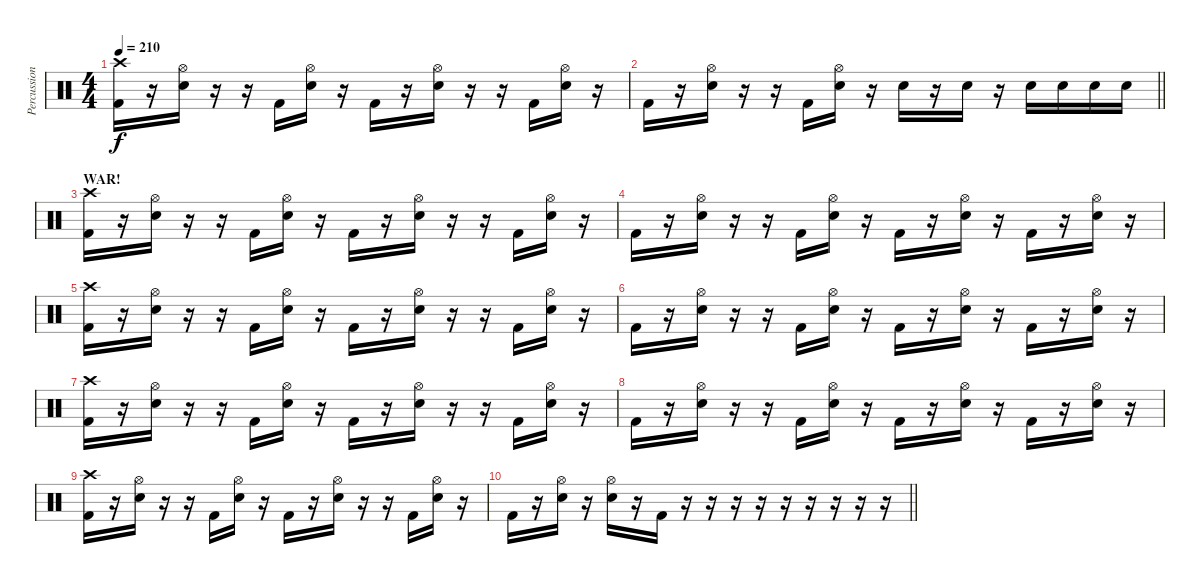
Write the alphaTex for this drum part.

\track ("Percussions" "Percussion") {instrument percussion}
\staff {score}
\articulation defaults
\ts (4 4)
\tempo 210
\clef neutral
\ks c
("Crash high (hit)" "Kick (hit) 2").16{dy f} r.16 ("Hi-Hat (open)" "Snare (hit) 2").16 r.16 r.16 "Kick (hit) 2".16 ("Hi-Hat (open)" "Snare (hit) 2").16 r.16 "Kick (hit) 2".16 r.16 ("Hi-Hat (open)" "Snare (hit) 2").16 r.16 r.16 "Kick (hit) 2".16 ("Hi-Hat (open)" "Snare (hit) 2").16 r.16 |
\barLineRight lightlight "Kick (hit) 2".16
r.16 ("Hi-Hat (open)" "Snare (hit) 2").16 r.16 r.16 "Kick (hit) 2".16 ("Hi-Hat (open)" "Snare (hit) 2").16 r.16 "Snare (hit) 2".16 r.16 "Snare (hit) 2".16 r.16 "Snare (hit) 2".16 "Snare (hit) 2".16 "Snare (hit) 2".16 "Snare (hit) 2".16 |
\section ("" "WAR!")
("Crash high (hit)" "Kick (hit) 2").16 r.16 ("Hi-Hat (open)" "Snare (hit) 2").16 r.16 r.16 "Kick (hit) 2".16 ("Hi-Hat (open)" "Snare (hit) 2").16 r.16 "Kick (hit) 2".16 r.16 ("Hi-Hat (open)" "Snare (hit) 2").16 r.16 r.16 "Kick (hit) 2".16 ("Hi-Hat (open)" "Snare (hit) 2").16 r.16 |
"Kick (hit) 2".16 r.16 ("Hi-Hat (open)" "Snare (hit) 2").16 r.16 r.16 "Kick (hit) 2".16 ("Hi-Hat (open)" "Snare (hit) 2").16 r.16 "Kick (hit) 2".16 r.16 ("Hi-Hat (open)" "Snare (hit) 2").16 r.16 "Kick (hit) 2".16 r.16 ("Hi-Hat (open)" "Snare (hit) 2").16 r.16 |
("Crash high (hit)" "Kick (hit) 2").16 r.16 ("Hi-Hat (open)" "Snare (hit) 2").16 r.16 r.16 "Kick (hit) 2".16 ("Hi-Hat (open)" "Snare (hit) 2").16 r.16 "Kick (hit) 2".16 r.16 ("Hi-Hat (open)" "Snare (hit) 2").16 r.16 r.16 "Kick (hit) 2".16 ("Hi-Hat (open)" "Snare (hit) 2").16 r.16 |
"Kick (hit) 2".16 r.16 ("Hi-Hat (open)" "Snare (hit) 2").16 r.16 r.16 "Kick (hit) 2".16 ("Hi-Hat (open)" "Snare (hit) 2").16 r.16 "Kick (hit) 2".16 r.16 ("Hi-Hat (open)" "Snare (hit) 2").16 r.16 "Kick (hit) 2".16 r.16 ("Hi-Hat (open)" "Snare (hit) 2").16 r.16 |
("Crash high (hit)" "Kick (hit) 2").16 r.16 ("Hi-Hat (open)" "Snare (hit) 2").16 r.16 r.16 "Kick (hit) 2".16 ("Hi-Hat (open)" "Snare (hit) 2").16 r.16 "Kick (hit) 2".16 r.16 ("Hi-Hat (open)" "Snare (hit) 2").16 r.16 r.16 "Kick (hit) 2".16 ("Hi-Hat (open)" "Snare (hit) 2").16 r.16 |
"Kick (hit) 2".16 r.16 ("Hi-Hat (open)" "Snare (hit) 2").16 r.16 r.16 "Kick (hit) 2".16 ("Hi-Hat (open)" "Snare (hit) 2").16 r.16 "Kick (hit) 2".16 r.16 ("Hi-Hat (open)" "Snare (hit) 2").16 r.16 "Kick (hit) 2".16 r.16 ("Hi-Hat (open)" "Snare (hit) 2").16 r.16 |
("Crash high (hit)" "Kick (hit) 2").16 r.16 ("Hi-Hat (open)" "Snare (hit) 2").16 r.16 r.16 "Kick (hit) 2".16 ("Hi-Hat (open)" "Snare (hit) 2").16 r.16 "Kick (hit) 2".16 r.16 ("Hi-Hat (open)" "Snare (hit) 2").16 r.16 r.16 "Kick (hit) 2".16 ("Hi-Hat (open)" "Snare (hit) 2").16 r.16 |
\barLineRight lightlight "Kick (hit) 2".16
r.16 ("Hi-Hat (open)" "Snare (hit) 2").16 r.16 ("Hi-Hat (open)" "Snare (hit) 2").16 r.16 "Kick (hit) 2".16 r.16 r.16 r.16 r.16 r.16 r.16 r.16 r.16 r.16
